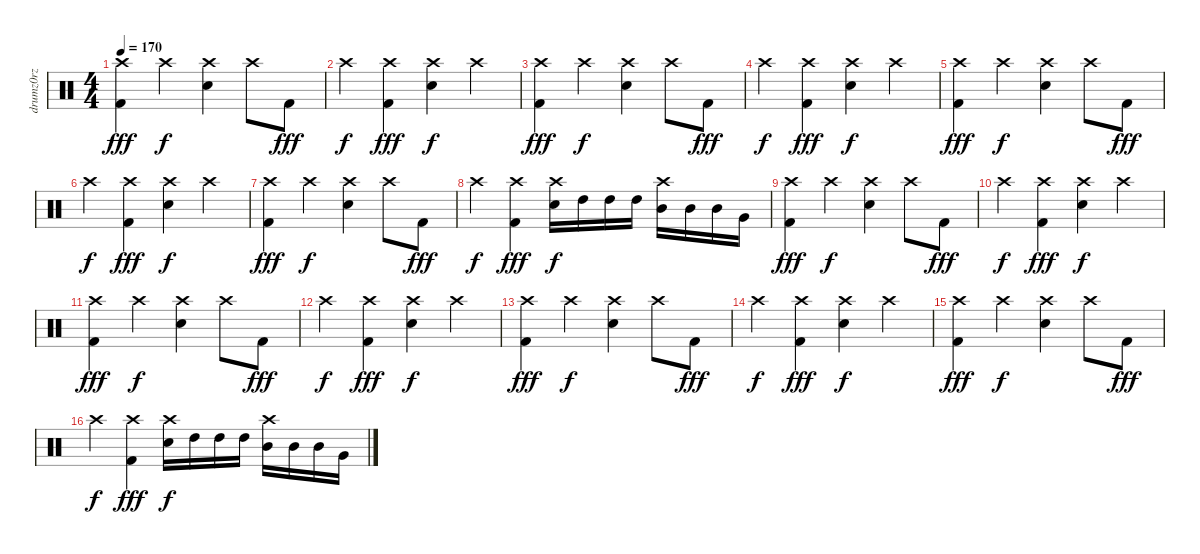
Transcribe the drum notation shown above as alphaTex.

\track ("drumz0rz" "drumz0rz") {instrument percussion}
\staff {score}
\articulation defaults
\ts (4 4)
\tempo 170
\clef neutral
\ks c
("Crash high (hit)" "Kick (hit) 2").4{dy fff} "Crash high (hit)".4{dy f} ("Crash high (hit)" "Electric Snare (hit)").4 "Crash high (hit)".8 "Kick (hit) 2".8{dy fff} |
"Crash high (hit)".4{dy f} ("Crash high (hit)" "Kick (hit) 2").4{dy fff} ("Crash high (hit)" "Electric Snare (hit)").4{dy f} "Crash high (hit)".4 |
("Crash high (hit)" "Kick (hit) 2").4{dy fff} "Crash high (hit)".4{dy f} ("Crash high (hit)" "Electric Snare (hit)").4 "Crash high (hit)".8 "Kick (hit) 2".8{dy fff} |
"Crash high (hit)".4{dy f} ("Crash high (hit)" "Kick (hit) 2").4{dy fff} ("Crash high (hit)" "Electric Snare (hit)").4{dy f} "Crash high (hit)".4 |
("Crash high (hit)" "Kick (hit) 2").4{dy fff} "Crash high (hit)".4{dy f} ("Crash high (hit)" "Electric Snare (hit)").4 "Crash high (hit)".8 "Kick (hit) 2".8{dy fff} |
"Crash high (hit)".4{dy f} ("Crash high (hit)" "Kick (hit) 2").4{dy fff} ("Crash high (hit)" "Electric Snare (hit)").4{dy f} "Crash high (hit)".4 |
("Crash high (hit)" "Kick (hit) 2").4{dy fff} "Crash high (hit)".4{dy f} ("Crash high (hit)" "Electric Snare (hit)").4 "Crash high (hit)".8 "Kick (hit) 2".8{dy fff} |
"Crash high (hit)".4{dy f} ("Crash high (hit)" "Kick (hit) 2").4{dy fff} ("Crash high (hit)" "Electric Snare (hit)").16{dy f} "High Tom (hit)".16 "High Tom (hit)".16 "High Tom (hit)".16 ("Crash high (hit)" "Mid Tom (hit)").16 "Mid Tom (hit)".16 "Mid Tom (hit)".16 "Very Low Tom (hit)".16 |
("Crash high (hit)" "Kick (hit) 2").4{dy fff} "Crash high (hit)".4{dy f} ("Crash high (hit)" "Electric Snare (hit)").4 "Crash high (hit)".8 "Kick (hit) 2".8{dy fff} |
"Crash high (hit)".4{dy f} ("Crash high (hit)" "Kick (hit) 2").4{dy fff} ("Crash high (hit)" "Electric Snare (hit)").4{dy f} "Crash high (hit)".4 |
("Crash high (hit)" "Kick (hit) 2").4{dy fff} "Crash high (hit)".4{dy f} ("Crash high (hit)" "Electric Snare (hit)").4 "Crash high (hit)".8 "Kick (hit) 2".8{dy fff} |
"Crash high (hit)".4{dy f} ("Crash high (hit)" "Kick (hit) 2").4{dy fff} ("Crash high (hit)" "Electric Snare (hit)").4{dy f} "Crash high (hit)".4 |
("Crash high (hit)" "Kick (hit) 2").4{dy fff} "Crash high (hit)".4{dy f} ("Crash high (hit)" "Electric Snare (hit)").4 "Crash high (hit)".8 "Kick (hit) 2".8{dy fff} |
"Crash high (hit)".4{dy f} ("Crash high (hit)" "Kick (hit) 2").4{dy fff} ("Crash high (hit)" "Electric Snare (hit)").4{dy f} "Crash high (hit)".4 |
("Crash high (hit)" "Kick (hit) 2").4{dy fff} "Crash high (hit)".4{dy f} ("Crash high (hit)" "Electric Snare (hit)").4 "Crash high (hit)".8 "Kick (hit) 2".8{dy fff} |
"Crash high (hit)".4{dy f} ("Crash high (hit)" "Kick (hit) 2").4{dy fff} ("Crash high (hit)" "Electric Snare (hit)").16{dy f} "High Tom (hit)".16 "High Tom (hit)".16 "High Tom (hit)".16 ("Crash high (hit)" "Mid Tom (hit)").16 "Mid Tom (hit)".16 "Mid Tom (hit)".16 "Very Low Tom (hit)".16
